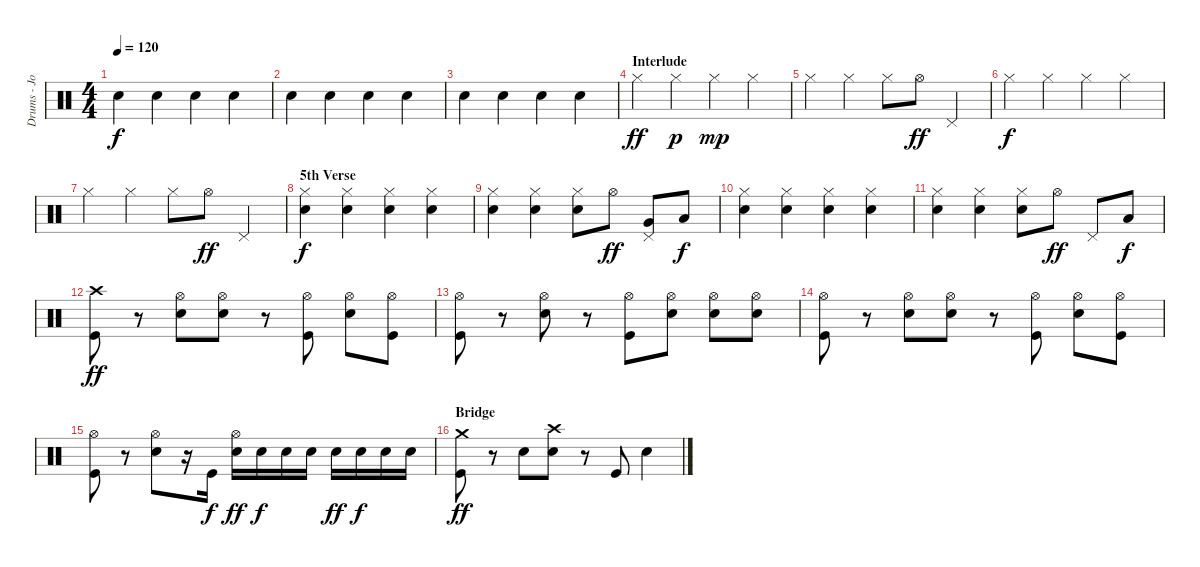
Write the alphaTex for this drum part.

\track ("Drums - Josh Klinghoffer" "Drums - Jo") {instrument percussion}
\staff {score}
\articulation defaults
\ts (4 4)
\tempo 120
\clef neutral
\ks c "Snare (hit) 2".4{dy f} "Snare (hit) 2".4 "Snare (hit) 2".4 "Snare (hit) 2".4
|
"Snare (hit) 2".4 "Snare (hit) 2".4 "Snare (hit) 2".4 "Snare (hit) 2".4 |
"Snare (hit) 2".4 "Snare (hit) 2".4 "Snare (hit) 2".4 "Snare (hit) 2".4 |
\section ("" "Interlude")
"Hi-Hat (closed)".4{dy ff} "Hi-Hat (closed)".4{dy p} "Hi-Hat (closed)".4{dy mp} "Hi-Hat (closed)".4 |
"Hi-Hat (closed)".4 "Hi-Hat (closed)".4 "Hi-Hat (closed)".8 "Hi-Hat (open)".8{dy ff} "Pedal Hi-Hat (hit)".4 |
"Hi-Hat (closed)".4{dy f} "Hi-Hat (closed)".4 "Hi-Hat (closed)".4 "Hi-Hat (closed)".4 |
"Hi-Hat (closed)".4 "Hi-Hat (closed)".4 "Hi-Hat (closed)".8 "Hi-Hat (open)".8{dy ff} "Pedal Hi-Hat (hit)".4 |
\section ("" "5th Verse")
("Hi-Hat (closed)" "Snare (hit) 2").4{dy f} ("Hi-Hat (closed)" "Snare (hit) 2").4 ("Hi-Hat (closed)" "Snare (hit) 2").4 ("Hi-Hat (closed)" "Snare (hit) 2").4 |
("Hi-Hat (closed)" "Snare (hit) 2").4 ("Hi-Hat (closed)" "Snare (hit) 2").4 ("Hi-Hat (closed)" "Snare (hit) 2").8 "Hi-Hat (open)".8{dy ff} ("Pedal Hi-Hat (hit)" "Very Low Tom (hit)").8 "Low Floor Tom (hit)".8{dy f} |
("Hi-Hat (closed)" "Snare (hit) 2").4 ("Hi-Hat (closed)" "Snare (hit) 2").4 ("Hi-Hat (closed)" "Snare (hit) 2").4 ("Hi-Hat (closed)" "Snare (hit) 2").4 |
("Hi-Hat (closed)" "Snare (hit) 2").4 ("Hi-Hat (closed)" "Snare (hit) 2").4 ("Hi-Hat (closed)" "Snare (hit) 2").8 "Hi-Hat (open)".8{dy ff} "Pedal Hi-Hat (hit)".8 "Low Floor Tom (hit)".8{dy f} |
("Crash high (hit)" "Kick (hit)").8{dy ff} r.8 ("Hi-Hat (open)" "Snare (hit) 2").8 ("Hi-Hat (open)" "Snare (hit) 2").8 r.8 ("Hi-Hat (open)" "Kick (hit)").8 ("Hi-Hat (open)" "Snare (hit) 2").8 ("Hi-Hat (open)" "Kick (hit)").8 |
("Hi-Hat (open)" "Kick (hit)").8 r.8 ("Hi-Hat (open)" "Snare (hit) 2").8 r.8 ("Hi-Hat (open)" "Kick (hit)").8 ("Hi-Hat (open)" "Snare (hit) 2").8 ("Hi-Hat (open)" "Snare (hit) 2").8 ("Hi-Hat (open)" "Snare (hit) 2").8 |
("Hi-Hat (open)" "Kick (hit)").8 r.8 ("Hi-Hat (open)" "Snare (hit) 2").8 ("Hi-Hat (open)" "Snare (hit) 2").8 r.8 ("Hi-Hat (open)" "Kick (hit)").8 ("Hi-Hat (open)" "Snare (hit) 2").8 ("Hi-Hat (open)" "Kick (hit)").8 |
("Hi-Hat (open)" "Kick (hit)").8 r.8 ("Hi-Hat (open)" "Snare (hit) 2").8 r.16 "Kick (hit)".16{dy f} ("Hi-Hat (open)" "Snare (hit) 2").16{dy ff} "Snare (hit) 2".16{dy f} "Snare (hit) 2".16 "Snare (hit) 2".16 "Snare (hit) 2".16{dy ff} "Snare (hit) 2".16{dy f} "Snare (hit) 2".16 "Snare (hit) 2".16 |
\section ("" "Bridge")
("Crash medium (hit)" "Kick (hit)").8{dy ff} r.8 "Snare (hit) 2".8 ("Crash high (hit)" "Snare (hit) 2").8 r.8 "Kick (hit)".8 "Snare (hit) 2".4
